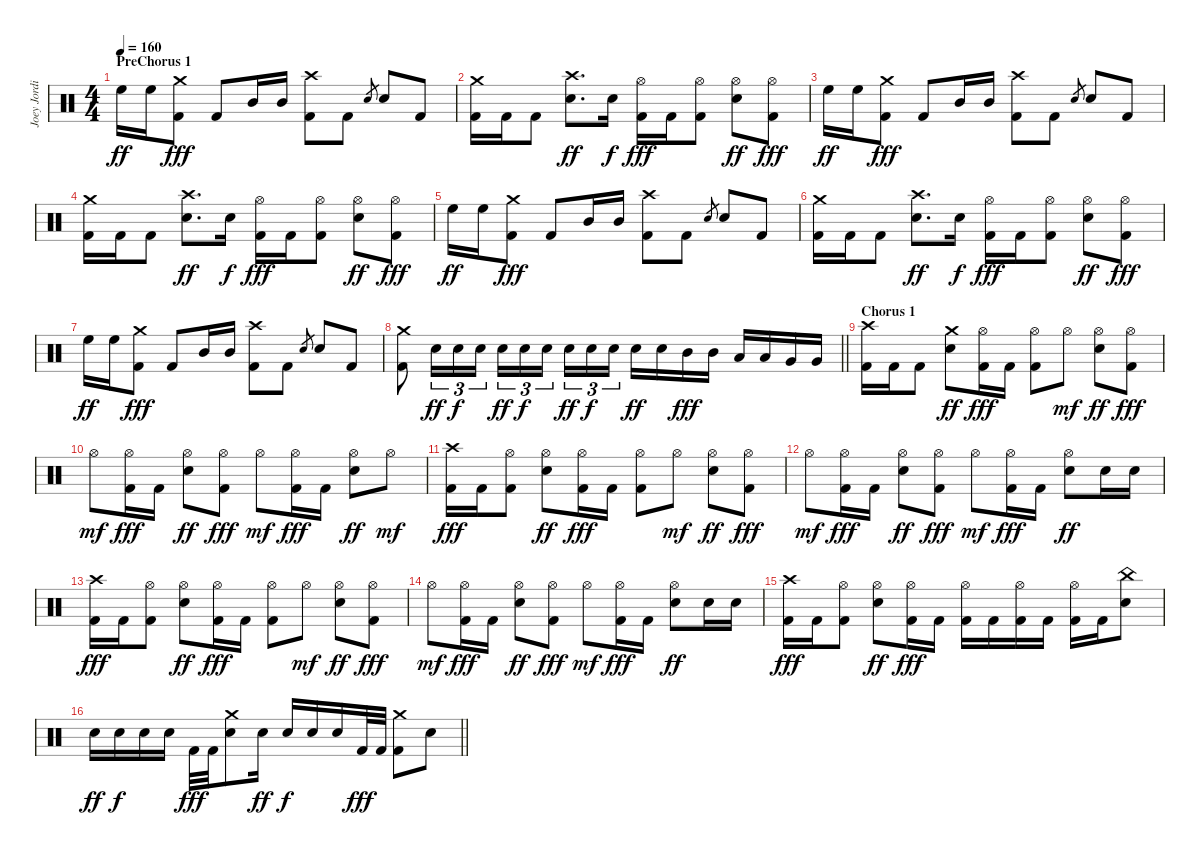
\track ("Joey Jordison" "Joey Jordi") {instrument percussion}
\staff {score}
\articulation defaults
\ts (4 4)
\section ("" "PreChorus 1")
\tempo 160
\clef neutral
\ks c "High Floor Tom (hit)".16{dy ff} "High Floor Tom (hit)".16
("Crash medium (hit)" "Kick (hit) 2").8{dy fff} "Kick (hit) 2".8 "Mid Tom (hit)".16 "Mid Tom (hit)".16 ("Crash high (hit)" "Kick (hit) 2").8 "Kick (hit) 2".8 "Electric Snare (hit)".8{gr} "Electric Snare (hit)".8 "Kick (hit) 2".8 |
("Crash medium (hit)" "Kick (hit) 2").16 "Kick (hit) 2".16 "Kick (hit) 2".8 ("Crash high (hit)" "Electric Snare (hit)").8{d dy ff} "Electric Snare (hit)".16{dy f} ("Hi-Hat (open)" "Kick (hit) 2").16{dy fff} "Kick (hit) 2".16 ("Hi-Hat (open)" "Kick (hit) 2").8 ("Hi-Hat (open)" "Electric Snare (hit)").8{dy ff} ("Hi-Hat (open)" "Kick (hit) 2").8{dy fff} |
"High Floor Tom (hit)".16{dy ff} "High Floor Tom (hit)".16 ("Crash medium (hit)" "Kick (hit) 2").8{dy fff} "Kick (hit) 2".8 "Mid Tom (hit)".16 "Mid Tom (hit)".16 ("Crash high (hit)" "Kick (hit) 2").8 "Kick (hit) 2".8 "Electric Snare (hit)".8{gr} "Electric Snare (hit)".8 "Kick (hit) 2".8 |
("Crash medium (hit)" "Kick (hit) 2").16 "Kick (hit) 2".16 "Kick (hit) 2".8 ("Crash high (hit)" "Electric Snare (hit)").8{d dy ff} "Electric Snare (hit)".16{dy f} ("Hi-Hat (open)" "Kick (hit) 2").16{dy fff} "Kick (hit) 2".16 ("Hi-Hat (open)" "Kick (hit) 2").8 ("Hi-Hat (open)" "Electric Snare (hit)").8{dy ff} ("Hi-Hat (open)" "Kick (hit) 2").8{dy fff} |
"High Floor Tom (hit)".16{dy ff} "High Floor Tom (hit)".16 ("Crash medium (hit)" "Kick (hit) 2").8{dy fff} "Kick (hit) 2".8 "Mid Tom (hit)".16 "Mid Tom (hit)".16 ("Crash high (hit)" "Kick (hit) 2").8 "Kick (hit) 2".8 "Electric Snare (hit)".8{gr} "Electric Snare (hit)".8 "Kick (hit) 2".8 |
("Crash medium (hit)" "Kick (hit) 2").16 "Kick (hit) 2".16 "Kick (hit) 2".8 ("Crash high (hit)" "Electric Snare (hit)").8{d dy ff} "Electric Snare (hit)".16{dy f} ("Hi-Hat (open)" "Kick (hit) 2").16{dy fff} "Kick (hit) 2".16 ("Hi-Hat (open)" "Kick (hit) 2").8 ("Hi-Hat (open)" "Electric Snare (hit)").8{dy ff} ("Hi-Hat (open)" "Kick (hit) 2").8{dy fff} |
"High Floor Tom (hit)".16{dy ff} "High Floor Tom (hit)".16 ("Crash medium (hit)" "Kick (hit) 2").8{dy fff} "Kick (hit) 2".8 "Mid Tom (hit)".16 "Mid Tom (hit)".16 ("Crash high (hit)" "Kick (hit) 2").8 "Kick (hit) 2".8 "Electric Snare (hit)".8{gr} "Electric Snare (hit)".8 "Kick (hit) 2".8 |
\barLineRight lightlight
("Crash medium (hit)" "Kick (hit) 2").8 "Electric Snare (hit)".16{tu (3 2) dy ff} "Electric Snare (hit)".16{tu (3 2) dy f} "Electric Snare (hit)".16{tu (3 2)} "Electric Snare (hit)".16{tu (3 2) dy ff} "Electric Snare (hit)".16{tu (3 2) dy f} "Electric Snare (hit)".16{tu (3 2) beam splitsecondary} "Electric Snare (hit)".16{tu (3 2) dy ff} "Electric Snare (hit)".16{tu (3 2) dy f} "Electric Snare (hit)".16{tu (3 2)} "Electric Snare (hit)".16{dy ff} "Electric Snare (hit)".16 "Mid Tom (hit)".16{dy fff} "Mid Tom (hit)".16 "Low Tom (hit)".16 "Low Tom (hit)".16 "Very Low Tom (hit)".16 "Very Low Tom (hit)".16 |
\section ("" "Chorus 1")
("Crash high (hit)" "Kick (hit) 2").16 "Kick (hit) 2".16 "Kick (hit) 2".8 ("Crash medium (hit)" "Electric Snare (hit)").8{dy ff} ("Hi-Hat (open)" "Kick (hit) 2").16{dy fff} "Kick (hit) 2".16 ("Hi-Hat (open)" "Kick (hit) 2").8 "Hi-Hat (open)".8{dy mf} ("Hi-Hat (open)" "Electric Snare (hit)").8{dy ff} ("Hi-Hat (open)" "Kick (hit) 2").8{dy fff} |
"Hi-Hat (open)".8{dy mf} ("Hi-Hat (open)" "Kick (hit) 2").16{dy fff} "Kick (hit) 2".16 ("Hi-Hat (open)" "Electric Snare (hit)").8{dy ff} ("Hi-Hat (open)" "Kick (hit) 2").8{dy fff} "Hi-Hat (open)".8{dy mf} ("Hi-Hat (open)" "Kick (hit) 2").16{dy fff} "Kick (hit) 2".16 ("Hi-Hat (open)" "Electric Snare (hit)").8{dy ff} "Hi-Hat (open)".8{dy mf} |
("Crash high (hit)" "Kick (hit) 2").16{dy fff} "Kick (hit) 2".16 ("Hi-Hat (open)" "Kick (hit) 2").8 ("Hi-Hat (open)" "Electric Snare (hit)").8{dy ff} ("Hi-Hat (open)" "Kick (hit) 2").16{dy fff} "Kick (hit) 2".16 ("Hi-Hat (open)" "Kick (hit) 2").8 "Hi-Hat (open)".8{dy mf} ("Hi-Hat (open)" "Electric Snare (hit)").8{dy ff} ("Hi-Hat (open)" "Kick (hit) 2").8{dy fff} |
"Hi-Hat (open)".8{dy mf} ("Hi-Hat (open)" "Kick (hit) 2").16{dy fff} "Kick (hit) 2".16 ("Hi-Hat (open)" "Electric Snare (hit)").8{dy ff} ("Hi-Hat (open)" "Kick (hit) 2").8{dy fff} "Hi-Hat (open)".8{dy mf} ("Hi-Hat (open)" "Kick (hit) 2").16{dy fff} "Kick (hit) 2".16 ("Hi-Hat (open)" "Electric Snare (hit)").8{dy ff} "Electric Snare (hit)".16 "Electric Snare (hit)".16 |
("Crash high (hit)" "Kick (hit) 2").16{dy fff} "Kick (hit) 2".16 ("Hi-Hat (open)" "Kick (hit) 2").8 ("Hi-Hat (open)" "Electric Snare (hit)").8{dy ff} ("Hi-Hat (open)" "Kick (hit) 2").16{dy fff} "Kick (hit) 2".16 ("Hi-Hat (open)" "Kick (hit) 2").8 "Hi-Hat (open)".8{dy mf} ("Hi-Hat (open)" "Electric Snare (hit)").8{dy ff} ("Hi-Hat (open)" "Kick (hit) 2").8{dy fff} |
"Hi-Hat (open)".8{dy mf} ("Hi-Hat (open)" "Kick (hit) 2").16{dy fff} "Kick (hit) 2".16 ("Hi-Hat (open)" "Electric Snare (hit)").8{dy ff} ("Hi-Hat (open)" "Kick (hit) 2").8{dy fff} "Hi-Hat (open)".8{dy mf} ("Hi-Hat (open)" "Kick (hit) 2").16{dy fff} "Kick (hit) 2".16 ("Hi-Hat (open)" "Electric Snare (hit)").8{dy ff} "Electric Snare (hit)".16 "Electric Snare (hit)".16 |
("Crash high (hit)" "Kick (hit) 2").16{dy fff} "Kick (hit) 2".16 ("Hi-Hat (open)" "Kick (hit) 2").8 ("Hi-Hat (open)" "Electric Snare (hit)").8{dy ff} ("Hi-Hat (open)" "Kick (hit) 2").16{dy fff} "Kick (hit) 2".16 ("Hi-Hat (open)" "Kick (hit) 2").16 "Kick (hit) 2".16 ("Hi-Hat (open)" "Kick (hit) 2").16 "Kick (hit) 2".16 ("Hi-Hat (open)" "Kick (hit) 2").16 "Kick (hit) 2".16 ("China (hit)" "Electric Snare (hit)").8 |
\barLineRight lightlight "Electric Snare (hit)".16{dy ff} "Electric Snare (hit)".16{dy f} "Electric Snare (hit)".16 "Electric Snare (hit)".16 "Kick (hit) 2".32{dy fff} "Kick (hit) 2".32
("Crash medium (hit)" "Electric Snare (hit)").8 "Electric Snare (hit)".16{dy ff} "Electric Snare (hit)".16{dy f} "Electric Snare (hit)".16 "Electric Snare (hit)".16 "Kick (hit) 2".32{dy fff} "Kick (hit) 2".32 ("Crash medium (hit)" "Kick (hit) 2").8 "Electric Snare (hit)".8
